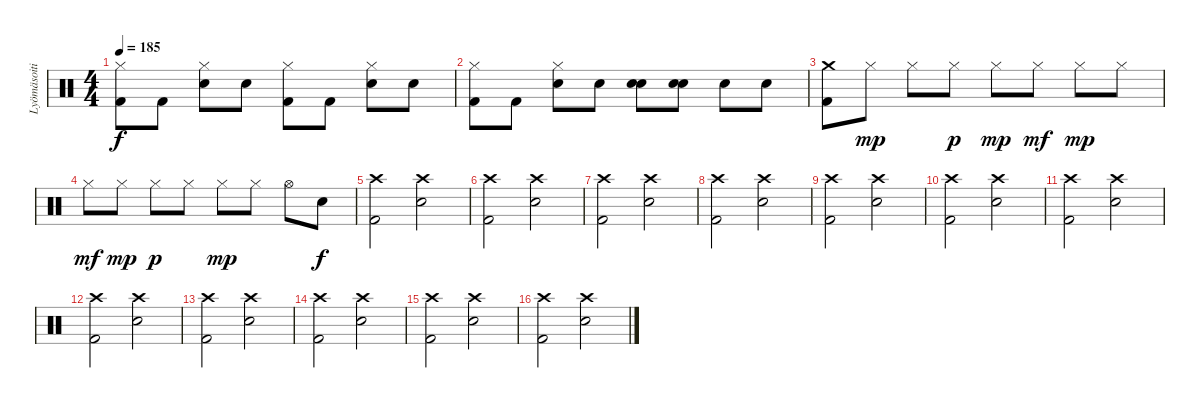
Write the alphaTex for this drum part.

\track ("Lyömäsoitin" "Lyömäsoiti") {instrument percussion}
\staff {score}
\articulation defaults
\ts (4 4)
\tempo 185
\clef neutral
\ks c
("Hi-Hat (closed)" "Kick (hit) 2").8{dy f} "Kick (hit) 2".8 ("Hi-Hat (closed)" "Electric Snare (hit)").8 "Snare (hit)".8 ("Hi-Hat (closed)" "Kick (hit) 2").8 "Kick (hit) 2".8 ("Hi-Hat (closed)" "Electric Snare (hit)").8 "Snare (hit)".8 |
("Hi-Hat (closed)" "Kick (hit) 2").8 "Kick (hit) 2".8 ("Hi-Hat (closed)" "Snare (hit)").8 "Electric Snare (hit)".8 ("Electric Snare (hit)" "Snare (hit)").8 ("Electric Snare (hit)" "Snare (hit)").8 "Electric Snare (hit)".8 "Electric Snare (hit)".8 |
("Crash medium (hit)" "Kick (hit) 2").8 "Hi-Hat (closed)".8{dy mp} "Hi-Hat (closed)".8 "Hi-Hat (closed)".8{dy p} "Hi-Hat (closed)".8{dy mp} "Hi-Hat (closed)".8{dy mf} "Hi-Hat (closed)".8{dy mp} "Hi-Hat (closed)".8 |
"Hi-Hat (closed)".8{dy mf} "Hi-Hat (closed)".8{dy mp} "Hi-Hat (closed)".8{dy p} "Hi-Hat (closed)".8 "Hi-Hat (closed)".8{dy mp} "Hi-Hat (closed)".8 "Hi-Hat (open)".8 "Snare (hit)".8{dy f} |
("Crash high (hit)" "Kick (hit) 2").2 ("Crash high (hit)" "Electric Snare (hit)").2 |
("Crash high (hit)" "Kick (hit) 2").2 ("Crash high (hit)" "Electric Snare (hit)").2 |
("Crash high (hit)" "Kick (hit) 2").2 ("Crash high (hit)" "Electric Snare (hit)").2 |
("Crash high (hit)" "Kick (hit) 2").2 ("Crash high (hit)" "Electric Snare (hit)").2 |
("Crash high (hit)" "Kick (hit) 2").2 ("Crash high (hit)" "Electric Snare (hit)").2 |
("Crash high (hit)" "Kick (hit) 2").2 ("Crash high (hit)" "Electric Snare (hit)").2 |
("Crash high (hit)" "Kick (hit) 2").2 ("Crash high (hit)" "Electric Snare (hit)").2 |
("Crash high (hit)" "Kick (hit) 2").2 ("Crash high (hit)" "Electric Snare (hit)").2 |
("Crash high (hit)" "Kick (hit) 2").2 ("Crash high (hit)" "Electric Snare (hit)").2 |
("Crash high (hit)" "Kick (hit) 2").2 ("Crash high (hit)" "Electric Snare (hit)").2 |
("Crash high (hit)" "Kick (hit) 2").2 ("Crash high (hit)" "Electric Snare (hit)").2 |
("Crash high (hit)" "Kick (hit) 2").2 ("Crash high (hit)" "Electric Snare (hit)").2
